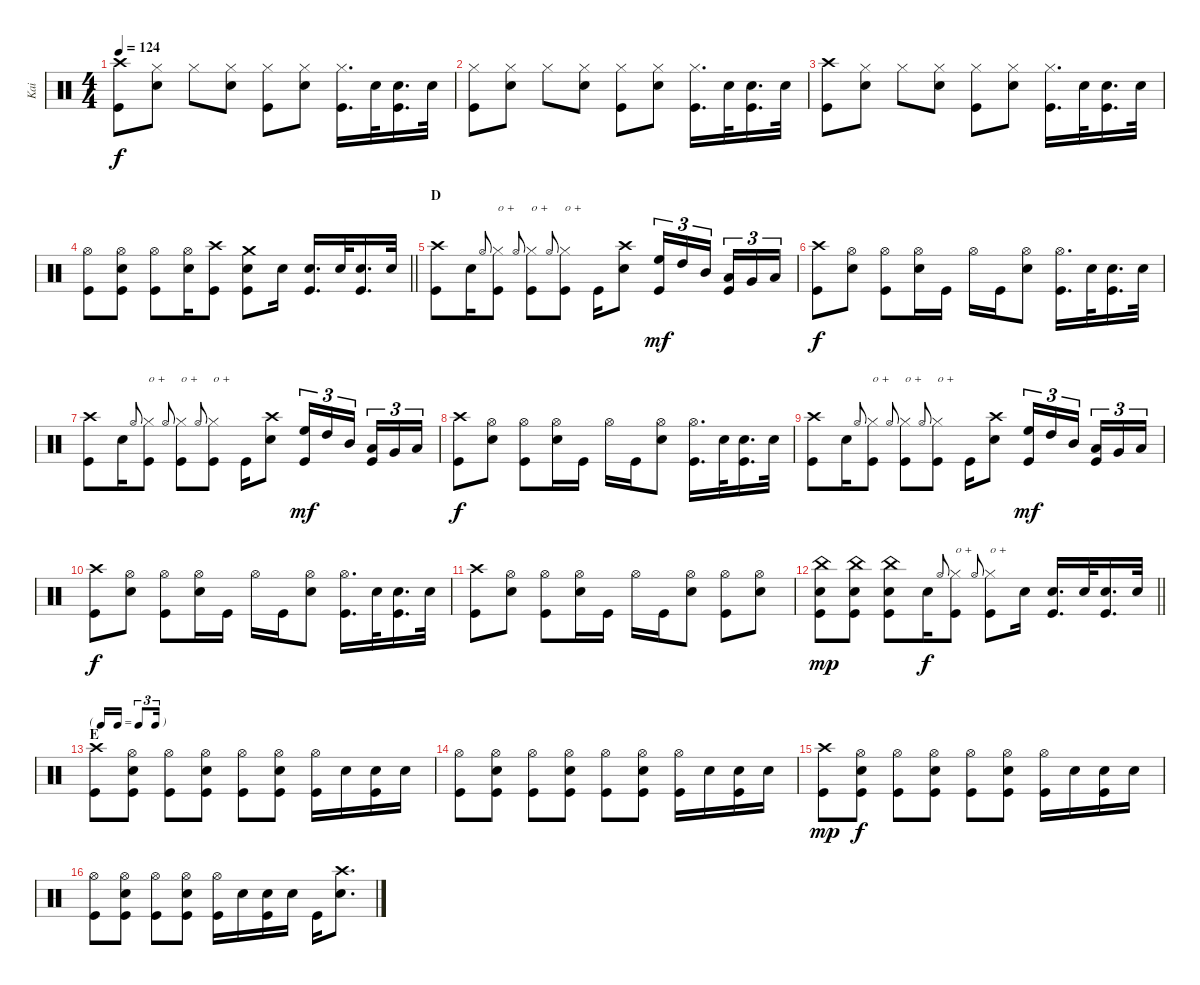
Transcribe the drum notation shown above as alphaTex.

\track ("Kai" "Kai") {instrument percussion}
\staff {score}
\articulation defaults
\ts (4 4)
\tempo 124
\clef neutral
\ks c
("Kick (hit)" "Crash high (hit)").8{dy f} ("Hi-Hat (closed)" "Snare (hit) 2").8 "Hi-Hat (closed)".8 ("Hi-Hat (closed)" "Snare (hit) 2").8 ("Kick (hit)" "Hi-Hat (closed)").8 ("Snare (hit) 2" "Hi-Hat (closed)").8 ("Kick (hit)" "Hi-Hat (closed)").16{d} "Snare (hit) 2".32 ("Snare (hit) 2" "Kick (hit)").16{d} "Snare (hit) 2".32 |
("Hi-Hat (closed)" "Kick (hit)").8 ("Hi-Hat (closed)" "Snare (hit) 2").8 "Hi-Hat (closed)".8 ("Hi-Hat (closed)" "Snare (hit) 2").8 ("Kick (hit)" "Hi-Hat (closed)").8 ("Snare (hit) 2" "Hi-Hat (closed)").8 ("Kick (hit)" "Hi-Hat (closed)").16{d} "Snare (hit) 2".32 ("Snare (hit) 2" "Kick (hit)").16{d} "Snare (hit) 2".32 |
("Kick (hit)" "Crash high (hit)").8 ("Hi-Hat (closed)" "Snare (hit) 2").8 "Hi-Hat (closed)".8 ("Hi-Hat (closed)" "Snare (hit) 2").8 ("Kick (hit)" "Hi-Hat (closed)").8 ("Snare (hit) 2" "Hi-Hat (closed)").8 ("Kick (hit)" "Hi-Hat (closed)").16{d} "Snare (hit) 2".32 ("Snare (hit) 2" "Kick (hit)").16{d} "Snare (hit) 2".32 |
\barLineRight lightlight
("Hi-Hat (open)" "Kick (hit)").8 ("Hi-Hat (open)" "Snare (hit) 2" "Kick (hit)").8 ("Hi-Hat (open)" "Kick (hit)").8 ("Hi-Hat (open)" "Snare (hit) 2").16 ("Kick (hit)" "Crash high (hit)").8 ("Crash medium (hit)" "Snare (hit) 2" "Kick (hit)").8 "Snare (hit) 2".16 ("Snare (hit) 2" "Kick (hit)").16{d} "Snare (hit) 2".32 ("Snare (hit) 2" "Kick (hit)").16{d} "Snare (hit) 2".32 |
\section ("" "D")
("Kick (hit)" "Crash high (hit)").8 "Snare (hit) 2".16 "Hi-Hat (open)".8{gr onbeat} ("Hi-Hat (closed)" "Kick (hit)").8{txt "o +"} "Hi-Hat (open)".8{gr onbeat} ("Hi-Hat (closed)" "Kick (hit)").8{txt "o +"} "Hi-Hat (open)".8{gr onbeat} ("Hi-Hat (closed)" "Kick (hit)").8{txt "o +"} "Kick (hit)".16 ("Snare (hit) 2" "Crash high (hit)").8 ("High Floor Tom (hit)" "Kick (hit)").16{tu (3 2) dy mf} "High Tom (hit)".16{tu (3 2)} "Mid Tom (hit)".16{tu (3 2) beam splitsecondary} ("Low Tom (hit)" "Kick (hit)").16{tu (3 2)} "Very Low Tom (hit)".16{tu (3 2)} "Low Floor Tom (hit)".16{tu (3 2)} |
("Kick (hit)" "Crash high (hit)").8{dy f} ("Snare (hit) 2" "Hi-Hat (open)").8 ("Kick (hit)" "Hi-Hat (open)").8 ("Snare (hit) 2" "Hi-Hat (open)").16 "Kick (hit)".16 "Hi-Hat (open)".16 "Kick (hit)".16 ("Snare (hit) 2" "Hi-Hat (open)").8 ("Kick (hit)" "Hi-Hat (open)").16{d} "Snare (hit) 2".32 ("Snare (hit) 2" "Kick (hit)").16{d} "Snare (hit) 2".32 |
("Kick (hit)" "Crash high (hit)").8 "Snare (hit) 2".16 "Hi-Hat (open)".8{gr onbeat} ("Hi-Hat (closed)" "Kick (hit)").8{txt "o +"} "Hi-Hat (open)".8{gr onbeat} ("Hi-Hat (closed)" "Kick (hit)").8{txt "o +"} "Hi-Hat (open)".8{gr onbeat} ("Hi-Hat (closed)" "Kick (hit)").8{txt "o +"} "Kick (hit)".16 ("Snare (hit) 2" "Crash high (hit)").8 ("High Floor Tom (hit)" "Kick (hit)").16{tu (3 2) dy mf} "High Tom (hit)".16{tu (3 2)} "Mid Tom (hit)".16{tu (3 2) beam splitsecondary} ("Low Tom (hit)" "Kick (hit)").16{tu (3 2)} "Very Low Tom (hit)".16{tu (3 2)} "Low Floor Tom (hit)".16{tu (3 2)} |
("Kick (hit)" "Crash high (hit)").8{dy f} ("Snare (hit) 2" "Hi-Hat (open)").8 ("Kick (hit)" "Hi-Hat (open)").8 ("Snare (hit) 2" "Hi-Hat (open)").16 "Kick (hit)".16 "Hi-Hat (open)".16 "Kick (hit)".16 ("Snare (hit) 2" "Hi-Hat (open)").8 ("Kick (hit)" "Hi-Hat (open)").16{d} "Snare (hit) 2".32 ("Snare (hit) 2" "Kick (hit)").16{d} "Snare (hit) 2".32 |
("Kick (hit)" "Crash high (hit)").8 "Snare (hit) 2".16 "Hi-Hat (open)".8{gr onbeat} ("Hi-Hat (closed)" "Kick (hit)").8{txt "o +"} "Hi-Hat (open)".8{gr onbeat} ("Hi-Hat (closed)" "Kick (hit)").8{txt "o +"} "Hi-Hat (open)".8{gr onbeat} ("Hi-Hat (closed)" "Kick (hit)").8{txt "o +"} "Kick (hit)".16 ("Snare (hit) 2" "Crash high (hit)").8 ("High Floor Tom (hit)" "Kick (hit)").16{tu (3 2) dy mf} "High Tom (hit)".16{tu (3 2)} "Mid Tom (hit)".16{tu (3 2) beam splitsecondary} ("Low Tom (hit)" "Kick (hit)").16{tu (3 2)} "Very Low Tom (hit)".16{tu (3 2)} "Low Floor Tom (hit)".16{tu (3 2)} |
("Kick (hit)" "Crash high (hit)").8{dy f} ("Snare (hit) 2" "Hi-Hat (open)").8 ("Kick (hit)" "Hi-Hat (open)").8 ("Snare (hit) 2" "Hi-Hat (open)").16 "Kick (hit)".16 "Hi-Hat (open)".16 "Kick (hit)".16 ("Snare (hit) 2" "Hi-Hat (open)").8 ("Kick (hit)" "Hi-Hat (open)").16{d} "Snare (hit) 2".32 ("Snare (hit) 2" "Kick (hit)").16{d} "Snare (hit) 2".32 |
("Kick (hit)" "Crash high (hit)").8 ("Snare (hit) 2" "Hi-Hat (open)").8 ("Kick (hit)" "Hi-Hat (open)").8 ("Snare (hit) 2" "Hi-Hat (open)").16 "Kick (hit)".16 "Hi-Hat (open)".16 "Kick (hit)".16 ("Snare (hit) 2" "Hi-Hat (open)").8 ("Kick (hit)" "Hi-Hat (open)").8 ("Snare (hit) 2" "Hi-Hat (open)").8 |
\barLineRight lightlight
("China (hit)" "Snare (hit) 2" "Kick (hit)").8{dy mp} ("China (hit)" "Snare (hit) 2" "Kick (hit)").8 ("China (hit)" "Snare (hit) 2" "Kick (hit)").8 "Snare (hit) 2".16{dy f} "Hi-Hat (open)".8{gr onbeat} ("Hi-Hat (closed)" "Kick (hit)").8{txt "o +"} "Hi-Hat (open)".8{gr onbeat} ("Hi-Hat (closed)" "Kick (hit)").8{txt "o +"} "Snare (hit) 2".16 ("Snare (hit) 2" "Kick (hit)").16{d} "Snare (hit) 2".32 ("Snare (hit) 2" "Kick (hit)").16{d} "Snare (hit) 2".32 |
\tf triplet16th
\section ("" "E")
("Kick (hit)" "Crash high (hit)").8 ("Hi-Hat (open)" "Snare (hit) 2" "Kick (hit)").8 ("Hi-Hat (open)" "Kick (hit)").8 ("Hi-Hat (open)" "Snare (hit) 2" "Kick (hit)").8 ("Kick (hit)" "Hi-Hat (open)").8 ("Snare (hit) 2" "Hi-Hat (open)" "Kick (hit)").8 ("Kick (hit)" "Hi-Hat (open)").16 "Snare (hit) 2".16 ("Snare (hit) 2" "Kick (hit)").16 "Snare (hit) 2".16 |
("Hi-Hat (open)" "Kick (hit)").8 ("Hi-Hat (open)" "Snare (hit) 2" "Kick (hit)").8 ("Hi-Hat (open)" "Kick (hit)").8 ("Hi-Hat (open)" "Snare (hit) 2" "Kick (hit)").8 ("Kick (hit)" "Hi-Hat (open)").8 ("Snare (hit) 2" "Hi-Hat (open)" "Kick (hit)").8 ("Kick (hit)" "Hi-Hat (open)").16 "Snare (hit) 2".16 ("Snare (hit) 2" "Kick (hit)").16 "Snare (hit) 2".16 |
("Crash high (hit)" "Kick (hit)").8{dy mp} ("Hi-Hat (open)" "Snare (hit) 2" "Kick (hit)").8{dy f} ("Hi-Hat (open)" "Kick (hit)").8 ("Hi-Hat (open)" "Snare (hit) 2" "Kick (hit)").8 ("Kick (hit)" "Hi-Hat (open)").8 ("Snare (hit) 2" "Hi-Hat (open)" "Kick (hit)").8 ("Kick (hit)" "Hi-Hat (open)").16 "Snare (hit) 2".16 ("Snare (hit) 2" "Kick (hit)").16 "Snare (hit) 2".16 |
("Hi-Hat (open)" "Kick (hit)").8 ("Hi-Hat (open)" "Snare (hit) 2" "Kick (hit)").8 ("Hi-Hat (open)" "Kick (hit)").8 ("Hi-Hat (open)" "Snare (hit) 2" "Kick (hit)").8 ("Kick (hit)" "Hi-Hat (open)").16 "Snare (hit) 2".16 ("Snare (hit) 2" "Kick (hit)").16 "Snare (hit) 2".16 "Kick (hit)".16 ("Snare (hit) 2" "Crash high (hit)").8{d}
